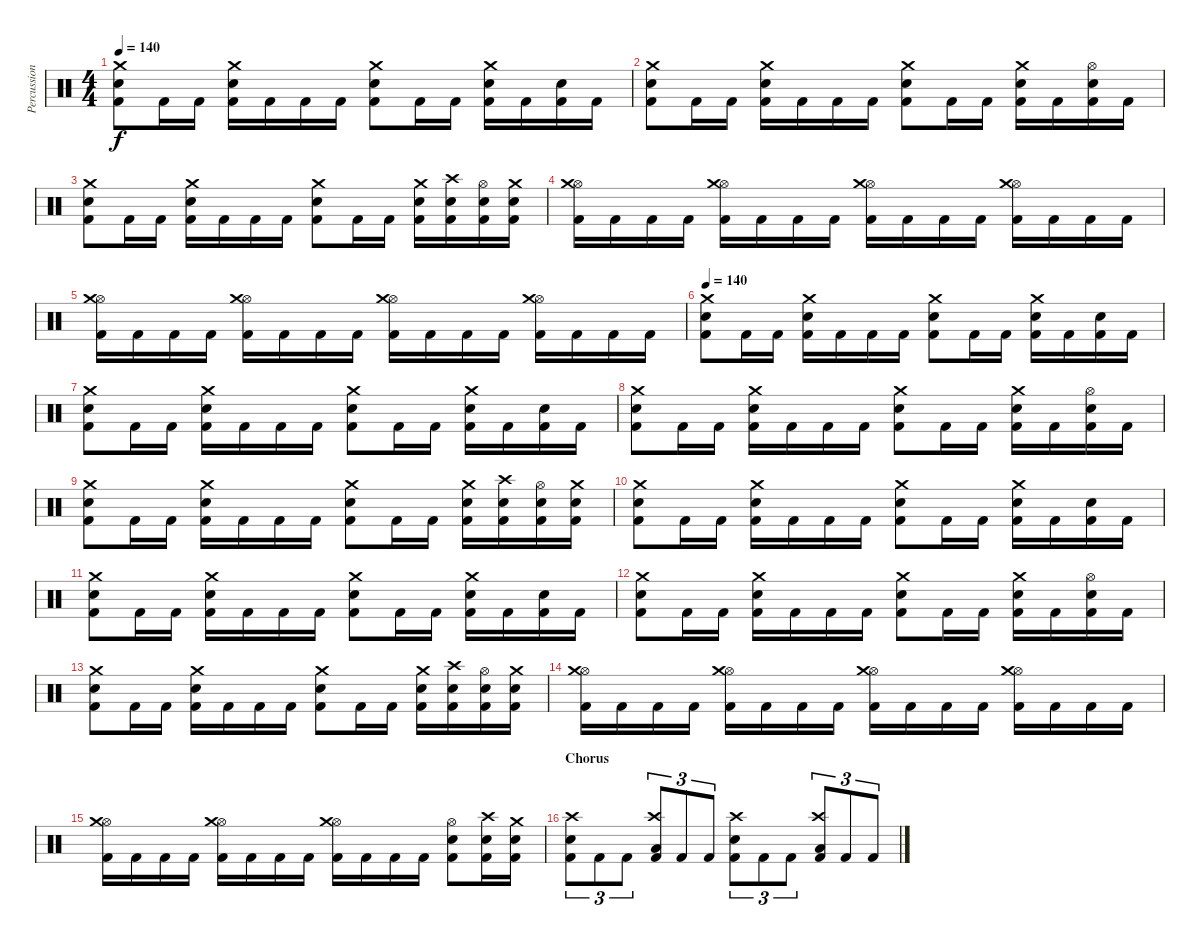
\track ("Percussion" "Percussion") {instrument percussion}
\staff {score}
\articulation defaults
\ts (4 4)
\tempo 140
\clef neutral
\ks c
("Crash medium (hit)" "Snare (hit) 2" "Kick (hit) 2").8{dy f} "Kick (hit) 2".16 "Kick (hit) 2".16 ("Crash medium (hit)" "Snare (hit) 2" "Kick (hit) 2").16 "Kick (hit) 2".16 "Kick (hit) 2".16 "Kick (hit) 2".16 ("Crash medium (hit)" "Snare (hit) 2" "Kick (hit) 2").8 "Kick (hit) 2".16 "Kick (hit) 2".16 ("Crash medium (hit)" "Snare (hit) 2" "Kick (hit) 2").16 "Kick (hit) 2".16 ("Snare (hit) 2" "Kick (hit) 2").16 "Kick (hit) 2".16 |
("Crash medium (hit)" "Snare (hit) 2" "Kick (hit) 2").8 "Kick (hit) 2".16 "Kick (hit) 2".16 ("Crash medium (hit)" "Snare (hit) 2" "Kick (hit) 2").16 "Kick (hit) 2".16 "Kick (hit) 2".16 "Kick (hit) 2".16 ("Crash medium (hit)" "Snare (hit) 2" "Kick (hit) 2").8 "Kick (hit) 2".16 "Kick (hit) 2".16 ("Crash medium (hit)" "Snare (hit) 2" "Kick (hit) 2").16 "Kick (hit) 2".16 ("Hi-Hat (open)" "Snare (hit) 2" "Kick (hit) 2").16 "Kick (hit) 2".16 |
("Crash medium (hit)" "Snare (hit) 2" "Kick (hit) 2").8 "Kick (hit) 2".16 "Kick (hit) 2".16 ("Crash medium (hit)" "Snare (hit) 2" "Kick (hit) 2").16 "Kick (hit) 2".16 "Kick (hit) 2".16 "Kick (hit) 2".16 ("Crash medium (hit)" "Snare (hit) 2" "Kick (hit) 2").8 "Kick (hit) 2".16 "Kick (hit) 2".16 ("Crash medium (hit)" "Snare (hit) 2" "Kick (hit) 2").16 ("Crash high (hit)" "Snare (hit) 2" "Kick (hit) 2").16 ("Hi-Hat (open)" "Snare (hit) 2" "Kick (hit) 2").16 ("Crash medium (hit)" "Snare (hit) 2" "Kick (hit) 2").16 |
("Hi-Hat (open)" "Crash medium (hit)" "Kick (hit) 2").16 "Kick (hit) 2".16 "Kick (hit) 2".16 "Kick (hit) 2".16 ("Hi-Hat (open)" "Crash medium (hit)" "Kick (hit) 2").16 "Kick (hit) 2".16 "Kick (hit) 2".16 "Kick (hit) 2".16 ("Hi-Hat (open)" "Crash medium (hit)" "Kick (hit) 2").16 "Kick (hit) 2".16 "Kick (hit) 2".16 "Kick (hit) 2".16 ("Hi-Hat (open)" "Crash medium (hit)" "Kick (hit) 2").16 "Kick (hit) 2".16 "Kick (hit) 2".16 "Kick (hit) 2".16 |
("Hi-Hat (open)" "Crash medium (hit)" "Kick (hit) 2").16 "Kick (hit) 2".16 "Kick (hit) 2".16 "Kick (hit) 2".16 ("Hi-Hat (open)" "Crash medium (hit)" "Kick (hit) 2").16 "Kick (hit) 2".16 "Kick (hit) 2".16 "Kick (hit) 2".16 ("Hi-Hat (open)" "Crash medium (hit)" "Kick (hit) 2").16 "Kick (hit) 2".16 "Kick (hit) 2".16 "Kick (hit) 2".16 ("Hi-Hat (open)" "Crash medium (hit)" "Kick (hit) 2").16 "Kick (hit) 2".16 "Kick (hit) 2".16 "Kick (hit) 2".16 |
\tempo 140
("Crash medium (hit)" "Snare (hit) 2" "Kick (hit) 2").8 "Kick (hit) 2".16 "Kick (hit) 2".16 ("Crash medium (hit)" "Snare (hit) 2" "Kick (hit) 2").16 "Kick (hit) 2".16 "Kick (hit) 2".16 "Kick (hit) 2".16 ("Crash medium (hit)" "Snare (hit) 2" "Kick (hit) 2").8 "Kick (hit) 2".16 "Kick (hit) 2".16 ("Crash medium (hit)" "Snare (hit) 2" "Kick (hit) 2").16 "Kick (hit) 2".16 ("Snare (hit) 2" "Kick (hit) 2").16 "Kick (hit) 2".16 |
("Crash medium (hit)" "Snare (hit) 2" "Kick (hit) 2").8 "Kick (hit) 2".16 "Kick (hit) 2".16 ("Crash medium (hit)" "Snare (hit) 2" "Kick (hit) 2").16 "Kick (hit) 2".16 "Kick (hit) 2".16 "Kick (hit) 2".16 ("Crash medium (hit)" "Snare (hit) 2" "Kick (hit) 2").8 "Kick (hit) 2".16 "Kick (hit) 2".16 ("Crash medium (hit)" "Snare (hit) 2" "Kick (hit) 2").16 "Kick (hit) 2".16 ("Snare (hit) 2" "Kick (hit) 2").16 "Kick (hit) 2".16 |
("Crash medium (hit)" "Snare (hit) 2" "Kick (hit) 2").8 "Kick (hit) 2".16 "Kick (hit) 2".16 ("Crash medium (hit)" "Snare (hit) 2" "Kick (hit) 2").16 "Kick (hit) 2".16 "Kick (hit) 2".16 "Kick (hit) 2".16 ("Crash medium (hit)" "Snare (hit) 2" "Kick (hit) 2").8 "Kick (hit) 2".16 "Kick (hit) 2".16 ("Crash medium (hit)" "Snare (hit) 2" "Kick (hit) 2").16 "Kick (hit) 2".16 ("Hi-Hat (open)" "Snare (hit) 2" "Kick (hit) 2").16 "Kick (hit) 2".16 |
("Crash medium (hit)" "Snare (hit) 2" "Kick (hit) 2").8 "Kick (hit) 2".16 "Kick (hit) 2".16 ("Crash medium (hit)" "Snare (hit) 2" "Kick (hit) 2").16 "Kick (hit) 2".16 "Kick (hit) 2".16 "Kick (hit) 2".16 ("Crash medium (hit)" "Snare (hit) 2" "Kick (hit) 2").8 "Kick (hit) 2".16 "Kick (hit) 2".16 ("Crash medium (hit)" "Snare (hit) 2" "Kick (hit) 2").16 ("Crash high (hit)" "Snare (hit) 2" "Kick (hit) 2").16 ("Hi-Hat (open)" "Snare (hit) 2" "Kick (hit) 2").16 ("Crash medium (hit)" "Snare (hit) 2" "Kick (hit) 2").16 |
("Crash medium (hit)" "Snare (hit) 2" "Kick (hit) 2").8 "Kick (hit) 2".16 "Kick (hit) 2".16 ("Crash medium (hit)" "Snare (hit) 2" "Kick (hit) 2").16 "Kick (hit) 2".16 "Kick (hit) 2".16 "Kick (hit) 2".16 ("Crash medium (hit)" "Snare (hit) 2" "Kick (hit) 2").8 "Kick (hit) 2".16 "Kick (hit) 2".16 ("Crash medium (hit)" "Snare (hit) 2" "Kick (hit) 2").16 "Kick (hit) 2".16 ("Snare (hit) 2" "Kick (hit) 2").16 "Kick (hit) 2".16 |
("Crash medium (hit)" "Snare (hit) 2" "Kick (hit) 2").8 "Kick (hit) 2".16 "Kick (hit) 2".16 ("Crash medium (hit)" "Snare (hit) 2" "Kick (hit) 2").16 "Kick (hit) 2".16 "Kick (hit) 2".16 "Kick (hit) 2".16 ("Crash medium (hit)" "Snare (hit) 2" "Kick (hit) 2").8 "Kick (hit) 2".16 "Kick (hit) 2".16 ("Crash medium (hit)" "Snare (hit) 2" "Kick (hit) 2").16 "Kick (hit) 2".16 ("Snare (hit) 2" "Kick (hit) 2").16 "Kick (hit) 2".16 |
("Crash medium (hit)" "Snare (hit) 2" "Kick (hit) 2").8 "Kick (hit) 2".16 "Kick (hit) 2".16 ("Crash medium (hit)" "Snare (hit) 2" "Kick (hit) 2").16 "Kick (hit) 2".16 "Kick (hit) 2".16 "Kick (hit) 2".16 ("Crash medium (hit)" "Snare (hit) 2" "Kick (hit) 2").8 "Kick (hit) 2".16 "Kick (hit) 2".16 ("Crash medium (hit)" "Snare (hit) 2" "Kick (hit) 2").16 "Kick (hit) 2".16 ("Hi-Hat (open)" "Snare (hit) 2" "Kick (hit) 2").16 "Kick (hit) 2".16 |
("Crash medium (hit)" "Snare (hit) 2" "Kick (hit) 2").8 "Kick (hit) 2".16 "Kick (hit) 2".16 ("Crash medium (hit)" "Snare (hit) 2" "Kick (hit) 2").16 "Kick (hit) 2".16 "Kick (hit) 2".16 "Kick (hit) 2".16 ("Crash medium (hit)" "Snare (hit) 2" "Kick (hit) 2").8 "Kick (hit) 2".16 "Kick (hit) 2".16 ("Crash medium (hit)" "Snare (hit) 2" "Kick (hit) 2").16 ("Crash high (hit)" "Snare (hit) 2" "Kick (hit) 2").16 ("Hi-Hat (open)" "Snare (hit) 2" "Kick (hit) 2").16 ("Crash medium (hit)" "Snare (hit) 2" "Kick (hit) 2").16 |
("Hi-Hat (open)" "Crash medium (hit)" "Kick (hit) 2").16 "Kick (hit) 2".16 "Kick (hit) 2".16 "Kick (hit) 2".16 ("Hi-Hat (open)" "Crash medium (hit)" "Kick (hit) 2").16 "Kick (hit) 2".16 "Kick (hit) 2".16 "Kick (hit) 2".16 ("Hi-Hat (open)" "Crash medium (hit)" "Kick (hit) 2").16 "Kick (hit) 2".16 "Kick (hit) 2".16 "Kick (hit) 2".16 ("Hi-Hat (open)" "Crash medium (hit)" "Kick (hit) 2").16 "Kick (hit) 2".16 "Kick (hit) 2".16 "Kick (hit) 2".16 |
("Hi-Hat (open)" "Crash medium (hit)" "Kick (hit) 2").16 "Kick (hit) 2".16 "Kick (hit) 2".16 "Kick (hit) 2".16 ("Hi-Hat (open)" "Crash medium (hit)" "Kick (hit) 2").16 "Kick (hit) 2".16 "Kick (hit) 2".16 "Kick (hit) 2".16 ("Hi-Hat (open)" "Crash medium (hit)" "Kick (hit) 2").16 "Kick (hit) 2".16 "Kick (hit) 2".16 "Kick (hit) 2".16 ("Hi-Hat (open)" "Snare (hit) 2" "Kick (hit) 2").8 ("Crash high (hit)" "Snare (hit) 2" "Kick (hit) 2").16 ("Crash medium (hit)" "Snare (hit) 2" "Kick (hit) 2").16 |
\section ("" "Chorus")
("Crash high (hit)" "Snare (hit) 2" "Kick (hit) 2").8{tu (3 2)} "Kick (hit) 2".8{tu (3 2)} "Kick (hit) 2".8{tu (3 2)} ("Crash high (hit)" "Low Floor Tom (hit)" "Kick (hit) 2").8{tu (3 2)} "Kick (hit) 2".8{tu (3 2)} "Kick (hit) 2".8{tu (3 2)} ("Crash high (hit)" "Snare (hit) 2" "Kick (hit) 2").8{tu (3 2)} "Kick (hit) 2".8{tu (3 2)} "Kick (hit) 2".8{tu (3 2)} ("Crash high (hit)" "Low Floor Tom (hit)" "Kick (hit) 2").8{tu (3 2)} "Kick (hit) 2".8{tu (3 2)} "Kick (hit) 2".8{tu (3 2)}
